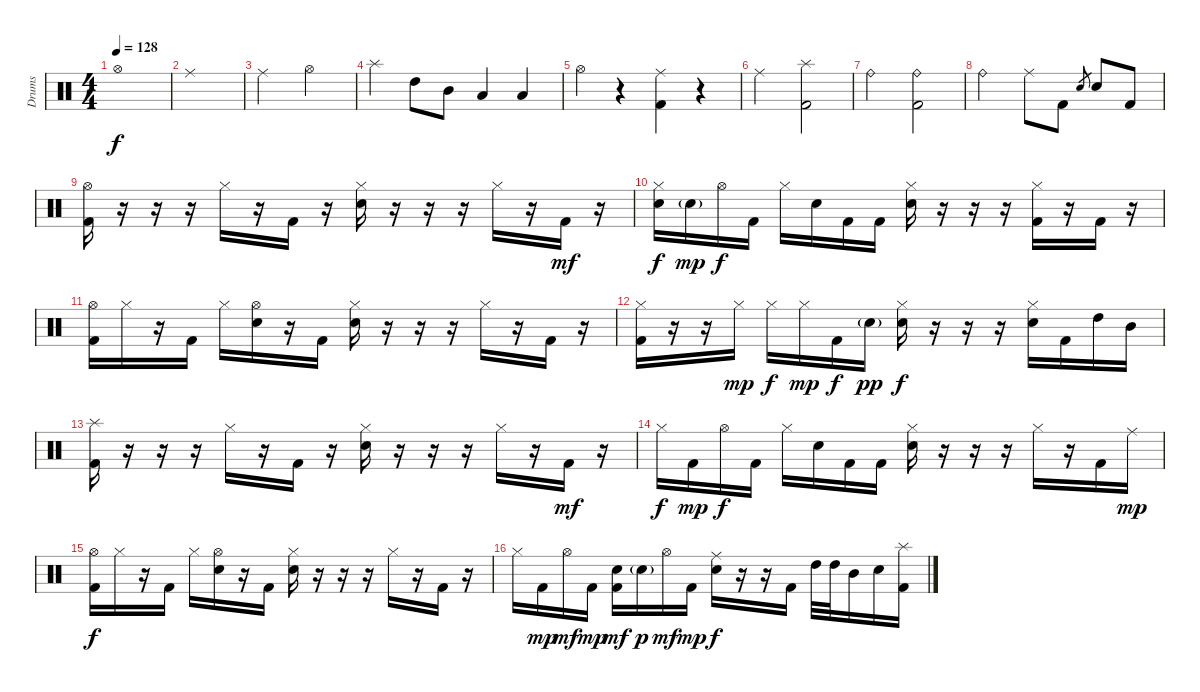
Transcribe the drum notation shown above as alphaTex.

\track ("Drums" "Drums") {instrument percussion}
\staff {score}
\articulation defaults
\ts (4 4)
\tempo 128
\clef neutral
\ks c "Hi-Hat (open)".1{dy f}
|
"Ride (middle)".1 |
"Ride (middle)".2 "Hi-Hat (open)".2 |
"Splash (hit)".4 "High Tom (hit)".8 "Mid Tom (hit)".8 "Low Tom (hit)".4 "Low Floor Tom (hit)".4 |
"Hi-Hat (open)".4{volume 11} r.4 ("Ride (middle)" "Kick (hit) 2").4 r.4 |
"Ride (middle)".2 ("Splash (hit)" "Kick (hit) 2").2 |
"Ride (bell)".2 ("Ride (bell)" "Kick (hit) 2").2 |
"Ride (bell)".2 "Ride (middle)".8 "Kick (hit) 2".8 "Electric Snare (hit)"{h}.8{gr} "Electric Snare (hit)".8 "Kick (hit) 2".8 |
("Hi-Hat (open)" "Kick (hit) 2").16 r.16 r.16 r.16 "Hi-Hat (closed)".16 r.16 "Kick (hit) 2".16 r.16 ("Hi-Hat (closed)" "Electric Snare (hit)").16 r.16 r.16 r.16 "Hi-Hat (closed)".16 r.16 "Kick (hit) 2".16{dy mf} r.16 |
("Hi-Hat (closed)" "Electric Snare (hit)").16{dy f} "Electric Snare (hit)"{g}.16{dy mp} "Hi-Hat (open)".16{dy f} "Kick (hit) 2".16 "Hi-Hat (closed)".16 "Electric Snare (hit)".16 "Kick (hit) 2".16 "Kick (hit) 2".16 ("Hi-Hat (closed)" "Electric Snare (hit)").16 r.16 r.16 r.16 ("Hi-Hat (closed)" "Kick (hit) 2").16 r.16 "Kick (hit) 2".16 r.16 |
("Hi-Hat (open)" "Kick (hit) 2").16 "Hi-Hat (closed)".16 r.16 "Kick (hit) 2".16 "Hi-Hat (closed)".16 ("Hi-Hat (open)" "Electric Snare (hit)").16 r.16 "Kick (hit) 2".16 ("Hi-Hat (closed)" "Electric Snare (hit)").16 r.16 r.16 r.16 "Hi-Hat (closed)".16 r.16 "Kick (hit) 2".16 r.16 |
("Hi-Hat (closed)" "Kick (hit) 2").16 r.16 r.16 "Hi-Hat (closed)".16{dy mp} "Hi-Hat (closed)".16{dy f} "Hi-Hat (closed)".16{dy mp} "Kick (hit) 2".16{dy f} "Electric Snare (hit)"{g}.16{dy pp} ("Hi-Hat (closed)" "Electric Snare (hit)").16{dy f} r.16 r.16 r.16 ("Hi-Hat (closed)" "Electric Snare (hit)").16 "Kick (hit) 2".16 "High Tom (hit)".16 "Mid Tom (hit)".16 |
("Splash (hit)" "Kick (hit) 2").16 r.16 r.16 r.16 "Hi-Hat (closed)".16 r.16 "Kick (hit) 2".16 r.16 ("Hi-Hat (closed)" "Electric Snare (hit)").16 r.16 r.16 r.16 "Hi-Hat (closed)".16 r.16 "Kick (hit) 2".16{dy mf} r.16 |
"Hi-Hat (closed)".16{dy f} "Kick (hit) 2".16{dy mp} "Hi-Hat (open)".16{dy f} "Kick (hit) 2".16 "Hi-Hat (closed)".16 "Electric Snare (hit)".16 "Kick (hit) 2".16 "Kick (hit) 2".16 ("Hi-Hat (closed)" "Electric Snare (hit)").16 r.16 r.16 r.16 "Hi-Hat (closed)".16 r.16 "Kick (hit) 2".16 "Ride (middle)".16{dy mp} |
("Hi-Hat (open)" "Kick (hit) 2").16{dy f} "Hi-Hat (closed)".16 r.16 "Kick (hit) 2".16 "Hi-Hat (closed)".16 ("Hi-Hat (open)" "Electric Snare (hit)").16 r.16 "Kick (hit) 2".16 ("Hi-Hat (closed)" "Electric Snare (hit)").16 r.16 r.16 r.16 "Hi-Hat (closed)".16 r.16 "Kick (hit) 2".16 r.16 |
"Hi-Hat (closed)".16 "Kick (hit) 2".16{dy mp} "Hi-Hat (open)".16{dy mf} "Kick (hit) 2".16{dy mp} ("Electric Snare (hit)" "Kick (hit) 2").16{dy mf} "Electric Snare (hit)"{g}.16{dy p} "Hi-Hat (open)".16{dy mf} "Kick (hit) 2".16{dy mp} ("Ride (middle)" "Electric Snare (hit)").16{dy f} r.16 r.16 "Kick (hit) 2".16 "High Tom (hit)".32 "High Tom (hit)".32 "Mid Tom (hit)".16 "Electric Snare (hit)".16 ("Splash (hit)" "Kick (hit) 2").16
